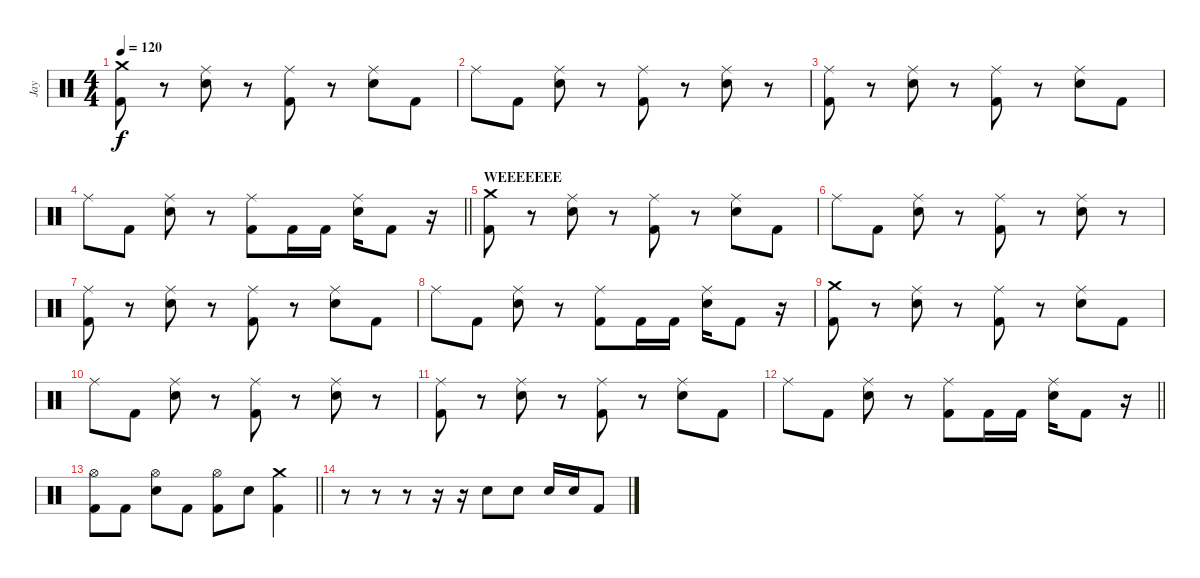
\track ("Jay" "Jay") {instrument percussion}
\staff {score}
\articulation defaults
\ts (4 4)
\tempo 120
\clef neutral
\ks c
("Kick (hit) 2" "Crash medium (hit)").8{dy f} r.8 ("Electric Snare (hit)" "Ride (middle)").8 r.8 ("Kick (hit) 2" "Ride (middle)").8 r.8 ("Electric Snare (hit)" "Ride (middle)").8 "Kick (hit) 2".8 |
"Ride (middle)".8 "Kick (hit) 2".8 ("Electric Snare (hit)" "Ride (middle)").8 r.8 ("Kick (hit) 2" "Ride (middle)").8 r.8 ("Electric Snare (hit)" "Ride (middle)").8 r.8 |
("Kick (hit) 2" "Ride (middle)").8 r.8 ("Electric Snare (hit)" "Ride (middle)").8 r.8 ("Kick (hit) 2" "Ride (middle)").8 r.8 ("Electric Snare (hit)" "Ride (middle)").8 "Kick (hit) 2".8 |
\barLineRight lightlight "Ride (middle)".8 "Kick (hit) 2".8
("Electric Snare (hit)" "Ride (middle)").8 r.8 ("Kick (hit) 2" "Ride (middle)").8 "Kick (hit) 2".16 "Kick (hit) 2".16 ("Electric Snare (hit)" "Ride (middle)").16 "Kick (hit) 2".8 r.16 |
\section ("" "WEEEEEEE")
("Kick (hit) 2" "Crash medium (hit)").8 r.8 ("Electric Snare (hit)" "Ride (middle)").8 r.8 ("Kick (hit) 2" "Ride (middle)").8 r.8 ("Electric Snare (hit)" "Ride (middle)").8 "Kick (hit) 2".8 |
"Ride (middle)".8 "Kick (hit) 2".8 ("Electric Snare (hit)" "Ride (middle)").8 r.8 ("Kick (hit) 2" "Ride (middle)").8 r.8 ("Electric Snare (hit)" "Ride (middle)").8 r.8 |
("Kick (hit) 2" "Ride (middle)").8 r.8 ("Electric Snare (hit)" "Ride (middle)").8 r.8 ("Kick (hit) 2" "Ride (middle)").8 r.8 ("Electric Snare (hit)" "Ride (middle)").8 "Kick (hit) 2".8 |
"Ride (middle)".8 "Kick (hit) 2".8 ("Electric Snare (hit)" "Ride (middle)").8 r.8 ("Kick (hit) 2" "Ride (middle)").8 "Kick (hit) 2".16 "Kick (hit) 2".16 ("Electric Snare (hit)" "Ride (middle)").16 "Kick (hit) 2".8 r.16 |
("Kick (hit) 2" "Crash medium (hit)").8 r.8 ("Electric Snare (hit)" "Ride (middle)").8 r.8 ("Kick (hit) 2" "Ride (middle)").8 r.8 ("Electric Snare (hit)" "Ride (middle)").8 "Kick (hit) 2".8 |
"Ride (middle)".8 "Kick (hit) 2".8 ("Electric Snare (hit)" "Ride (middle)").8 r.8 ("Kick (hit) 2" "Ride (middle)").8 r.8 ("Electric Snare (hit)" "Ride (middle)").8 r.8 |
("Kick (hit) 2" "Ride (middle)").8 r.8 ("Electric Snare (hit)" "Ride (middle)").8 r.8 ("Kick (hit) 2" "Ride (middle)").8 r.8 ("Electric Snare (hit)" "Ride (middle)").8 "Kick (hit) 2".8 |
\barLineRight lightlight "Ride (middle)".8 "Kick (hit) 2".8
("Electric Snare (hit)" "Ride (middle)").8 r.8 ("Kick (hit) 2" "Ride (middle)").8 "Kick (hit) 2".16 "Kick (hit) 2".16 ("Electric Snare (hit)" "Ride (middle)").16 "Kick (hit) 2".8 r.16 |
\barLineRight lightlight
("Kick (hit) 2" "Hi-Hat (open)").8 "Kick (hit) 2".8 ("Electric Snare (hit)" "Hi-Hat (open)").8 "Kick (hit) 2".8 ("Kick (hit) 2" "Hi-Hat (open)").8 "Electric Snare (hit)".8 ("Kick (hit) 2" "Crash medium (hit)").4 |
r.8 r.8 r.8 r.16 r.16 "Electric Snare (hit)".8 "Electric Snare (hit)".8 "Electric Snare (hit)".16 "Electric Snare (hit)".16 "Kick (hit) 2".8
